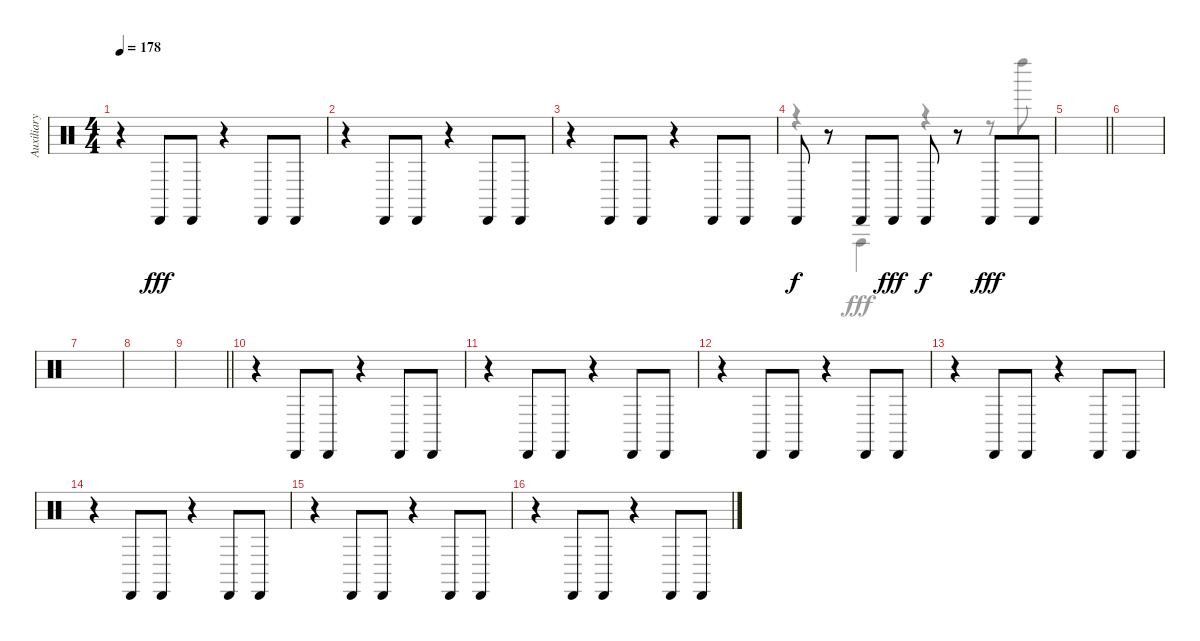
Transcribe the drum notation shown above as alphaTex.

\track ("Auxiliary Percussion" "Auxiliary ") {instrument percussion}
\staff {score}
\articulation defaults
\voice
\ts (4 4)
\tempo 178
\clef neutral
\ks c
r.4{dy fff} "Cabasa (hit)".8 "Cabasa (hit)".8 r.4 "Cabasa (hit)".8 "Cabasa (hit)".8 |
r.4 "Cabasa (hit)".8 "Cabasa (hit)".8 r.4 "Cabasa (hit)".8 "Cabasa (hit)".8 |
r.4 "Cabasa (hit)".8 "Cabasa (hit)".8 r.4 "Cabasa (hit)".8 "Cabasa (hit)".8 |
"Cabasa (hit)".8{dy f} r.8 "Cabasa (hit)".8 "Cabasa (hit)".8{dy fff} "Cabasa (hit)".8{dy f} r.8 "Cabasa (hit)".8{dy fff} "Cabasa (hit)".8 |
\barLineRight lightlight
|
|
|
|
\barLineRight lightlight
|
r.4 "Cabasa (hit)".8 "Cabasa (hit)".8 r.4 "Cabasa (hit)".8 "Cabasa (hit)".8 |
r.4 "Cabasa (hit)".8 "Cabasa (hit)".8 r.4 "Cabasa (hit)".8 "Cabasa (hit)".8 |
r.4 "Cabasa (hit)".8 "Cabasa (hit)".8 r.4 "Cabasa (hit)".8 "Cabasa (hit)".8 |
r.4 "Cabasa (hit)".8 "Cabasa (hit)".8 r.4 "Cabasa (hit)".8 "Cabasa (hit)".8 |
r.4 "Cabasa (hit)".8 "Cabasa (hit)".8 r.4 "Cabasa (hit)".8 "Cabasa (hit)".8 |
r.4 "Cabasa (hit)".8 "Cabasa (hit)".8 r.4 "Cabasa (hit)".8 "Cabasa (hit)".8 |
r.4 "Cabasa (hit)".8 "Cabasa (hit)".8 r.4 "Cabasa (hit)".8 "Cabasa (hit)".8
\voice
\clef neutral
\ottava regular
\simile none
\ks c
|
|
|
r.4 "Vibraslap (hit)".4 r.4 r.8 "Left Maraca (hit)".8 |
\barLineRight lightlight
|
|
|
|
\barLineRight lightlight
|
|
|
|
|
|
|
